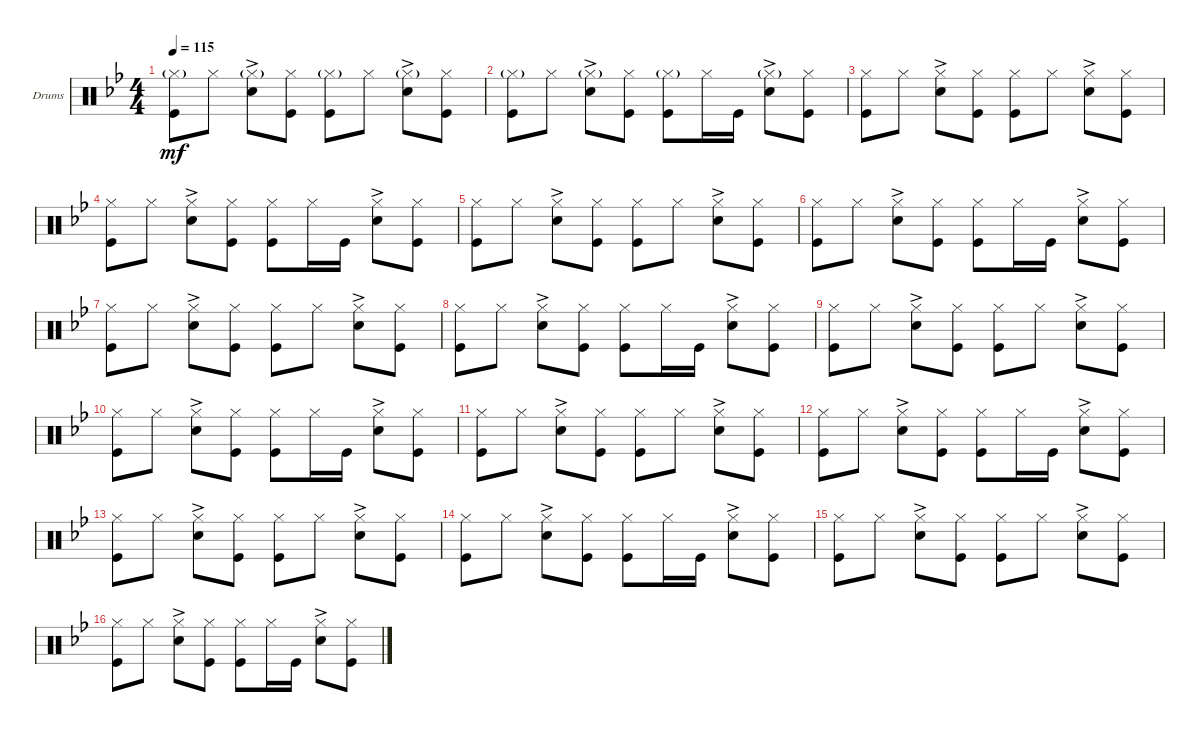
\defaultSystemsLayout 4
\bracketExtendMode groupsimilarinstruments
\firstSystemTrackNameOrientation horizontal
\otherSystemsTrackNameOrientation horizontal
\track ("Batera" "Drums") {instrument percussion}
\staff {score}
\articulation defaults
\ts (4 4)
\tempo 115
\clef neutral
\ks gminor
("Kick (hit)" "Hi-Hat (closed)"{g}).8{dy mf} "Hi-Hat (closed)".8 ("Snare (hit) 2"{ac} "Hi-Hat (closed)"{g}).8 ("Kick (hit)" "Hi-Hat (closed)").8 ("Hi-Hat (closed)"{g} "Kick (hit)").8 "Hi-Hat (closed)".8 ("Hi-Hat (closed)"{g} "Snare (hit) 2"{ac}).8 ("Hi-Hat (closed)" "Kick (hit)").8 |
("Hi-Hat (closed)"{g} "Kick (hit)").8 "Hi-Hat (closed)".8 ("Hi-Hat (closed)"{g} "Snare (hit) 2"{ac}).8 ("Hi-Hat (closed)" "Kick (hit)").8 ("Hi-Hat (closed)"{g} "Kick (hit)").8 "Hi-Hat (closed)".16 "Kick (hit)".16 ("Hi-Hat (closed)"{g} "Snare (hit) 2"{ac}).8 ("Hi-Hat (closed)" "Kick (hit)").8 |
("Kick (hit)" "Hi-Hat (closed)").8 "Hi-Hat (closed)".8 ("Snare (hit) 2"{ac} "Hi-Hat (closed)").8 ("Kick (hit)" "Hi-Hat (closed)").8 ("Hi-Hat (closed)" "Kick (hit)").8 "Hi-Hat (closed)".8 ("Hi-Hat (closed)" "Snare (hit) 2"{ac}).8 ("Hi-Hat (closed)" "Kick (hit)").8 |
("Hi-Hat (closed)" "Kick (hit)").8 "Hi-Hat (closed)".8 ("Hi-Hat (closed)" "Snare (hit) 2"{ac}).8 ("Hi-Hat (closed)" "Kick (hit)").8 ("Hi-Hat (closed)" "Kick (hit)").8 "Hi-Hat (closed)".16 "Kick (hit)".16 ("Hi-Hat (closed)" "Snare (hit) 2"{ac}).8 ("Hi-Hat (closed)" "Kick (hit)").8 |
("Kick (hit)" "Hi-Hat (closed)").8 "Hi-Hat (closed)".8 ("Snare (hit) 2"{ac} "Hi-Hat (closed)").8 ("Kick (hit)" "Hi-Hat (closed)").8 ("Hi-Hat (closed)" "Kick (hit)").8 "Hi-Hat (closed)".8 ("Hi-Hat (closed)" "Snare (hit) 2"{ac}).8 ("Hi-Hat (closed)" "Kick (hit)").8 |
("Hi-Hat (closed)" "Kick (hit)").8 "Hi-Hat (closed)".8 ("Hi-Hat (closed)" "Snare (hit) 2"{ac}).8 ("Hi-Hat (closed)" "Kick (hit)").8 ("Hi-Hat (closed)" "Kick (hit)").8 "Hi-Hat (closed)".16 "Kick (hit)".16 ("Hi-Hat (closed)" "Snare (hit) 2"{ac}).8 ("Hi-Hat (closed)" "Kick (hit)").8 |
("Kick (hit)" "Hi-Hat (closed)").8 "Hi-Hat (closed)".8 ("Snare (hit) 2"{ac} "Hi-Hat (closed)").8 ("Kick (hit)" "Hi-Hat (closed)").8 ("Hi-Hat (closed)" "Kick (hit)").8 "Hi-Hat (closed)".8 ("Hi-Hat (closed)" "Snare (hit) 2"{ac}).8 ("Hi-Hat (closed)" "Kick (hit)").8 |
("Hi-Hat (closed)" "Kick (hit)").8 "Hi-Hat (closed)".8 ("Hi-Hat (closed)" "Snare (hit) 2"{ac}).8 ("Hi-Hat (closed)" "Kick (hit)").8 ("Hi-Hat (closed)" "Kick (hit)").8 "Hi-Hat (closed)".16 "Kick (hit)".16 ("Hi-Hat (closed)" "Snare (hit) 2"{ac}).8 ("Hi-Hat (closed)" "Kick (hit)").8 |
("Kick (hit)" "Hi-Hat (closed)").8 "Hi-Hat (closed)".8 ("Snare (hit) 2"{ac} "Hi-Hat (closed)").8 ("Kick (hit)" "Hi-Hat (closed)").8 ("Hi-Hat (closed)" "Kick (hit)").8 "Hi-Hat (closed)".8 ("Hi-Hat (closed)" "Snare (hit) 2"{ac}).8 ("Hi-Hat (closed)" "Kick (hit)").8 |
("Hi-Hat (closed)" "Kick (hit)").8 "Hi-Hat (closed)".8 ("Hi-Hat (closed)" "Snare (hit) 2"{ac}).8 ("Hi-Hat (closed)" "Kick (hit)").8 ("Hi-Hat (closed)" "Kick (hit)").8 "Hi-Hat (closed)".16 "Kick (hit)".16 ("Hi-Hat (closed)" "Snare (hit) 2"{ac}).8 ("Hi-Hat (closed)" "Kick (hit)").8 |
("Kick (hit)" "Hi-Hat (closed)").8 "Hi-Hat (closed)".8 ("Snare (hit) 2"{ac} "Hi-Hat (closed)").8 ("Kick (hit)" "Hi-Hat (closed)").8 ("Hi-Hat (closed)" "Kick (hit)").8 "Hi-Hat (closed)".8 ("Hi-Hat (closed)" "Snare (hit) 2"{ac}).8 ("Hi-Hat (closed)" "Kick (hit)").8 |
("Hi-Hat (closed)" "Kick (hit)").8 "Hi-Hat (closed)".8 ("Hi-Hat (closed)" "Snare (hit) 2"{ac}).8 ("Hi-Hat (closed)" "Kick (hit)").8 ("Hi-Hat (closed)" "Kick (hit)").8 "Hi-Hat (closed)".16 "Kick (hit)".16 ("Hi-Hat (closed)" "Snare (hit) 2"{ac}).8 ("Hi-Hat (closed)" "Kick (hit)").8 |
("Kick (hit)" "Hi-Hat (closed)").8 "Hi-Hat (closed)".8 ("Snare (hit) 2"{ac} "Hi-Hat (closed)").8 ("Kick (hit)" "Hi-Hat (closed)").8 ("Hi-Hat (closed)" "Kick (hit)").8 "Hi-Hat (closed)".8 ("Hi-Hat (closed)" "Snare (hit) 2"{ac}).8 ("Hi-Hat (closed)" "Kick (hit)").8 |
("Hi-Hat (closed)" "Kick (hit)").8 "Hi-Hat (closed)".8 ("Hi-Hat (closed)" "Snare (hit) 2"{ac}).8 ("Hi-Hat (closed)" "Kick (hit)").8 ("Hi-Hat (closed)" "Kick (hit)").8 "Hi-Hat (closed)".16 "Kick (hit)".16 ("Hi-Hat (closed)" "Snare (hit) 2"{ac}).8 ("Hi-Hat (closed)" "Kick (hit)").8 |
("Kick (hit)" "Hi-Hat (closed)").8 "Hi-Hat (closed)".8 ("Snare (hit) 2"{ac} "Hi-Hat (closed)").8 ("Kick (hit)" "Hi-Hat (closed)").8 ("Hi-Hat (closed)" "Kick (hit)").8 "Hi-Hat (closed)".8 ("Hi-Hat (closed)" "Snare (hit) 2"{ac}).8 ("Hi-Hat (closed)" "Kick (hit)").8 |
("Hi-Hat (closed)" "Kick (hit)").8 "Hi-Hat (closed)".8 ("Hi-Hat (closed)" "Snare (hit) 2"{ac}).8 ("Hi-Hat (closed)" "Kick (hit)").8 ("Hi-Hat (closed)" "Kick (hit)").8 "Hi-Hat (closed)".16 "Kick (hit)".16 ("Hi-Hat (closed)" "Snare (hit) 2"{ac}).8 ("Hi-Hat (closed)" "Kick (hit)").8
